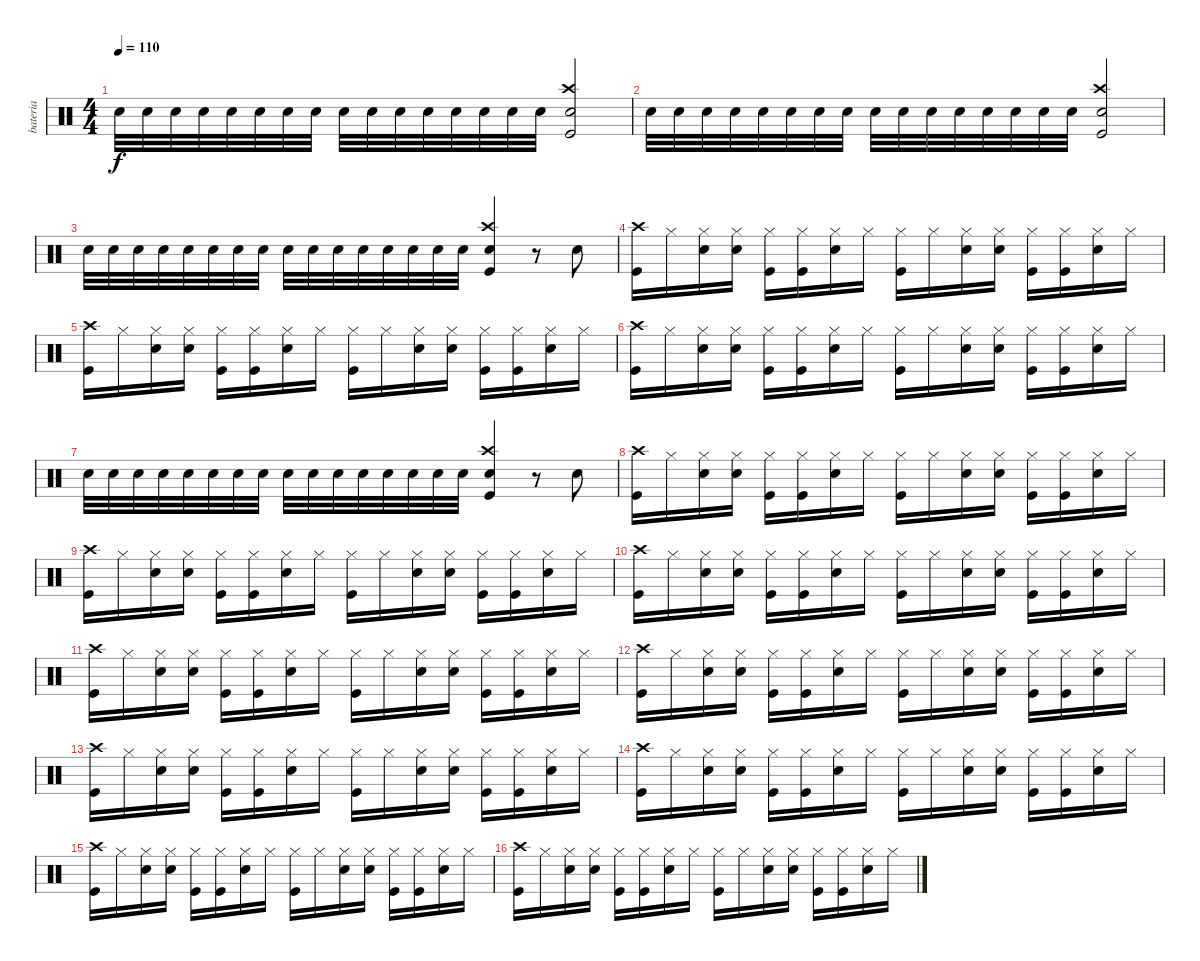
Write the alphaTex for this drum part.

\track ("bateria" "bateria") {instrument percussion}
\staff {score}
\articulation defaults
\ts (4 4)
\tempo 110
\clef neutral
\ks c "Snare (hit) 2".32{dy f} "Snare (hit) 2".32 "Snare (hit) 2".32 "Snare (hit) 2".32 "Snare (hit) 2".32 "Snare (hit) 2".32 "Snare (hit) 2".32 "Snare (hit) 2".32 "Snare (hit) 2".32 "Snare (hit) 2".32 "Snare (hit) 2".32 "Snare (hit) 2".32 "Snare (hit) 2".32 "Snare (hit) 2".32 "Snare (hit) 2".32 "Snare (hit) 2".32
("Crash high (hit)" "Snare (hit) 2" "Kick (hit)").2 |
"Snare (hit) 2".32 "Snare (hit) 2".32 "Snare (hit) 2".32 "Snare (hit) 2".32 "Snare (hit) 2".32 "Snare (hit) 2".32 "Snare (hit) 2".32 "Snare (hit) 2".32 "Snare (hit) 2".32 "Snare (hit) 2".32 "Snare (hit) 2".32 "Snare (hit) 2".32 "Snare (hit) 2".32 "Snare (hit) 2".32 "Snare (hit) 2".32 "Snare (hit) 2".32 ("Crash high (hit)" "Snare (hit) 2" "Kick (hit)").2 |
"Snare (hit) 2".32 "Snare (hit) 2".32 "Snare (hit) 2".32 "Snare (hit) 2".32 "Snare (hit) 2".32 "Snare (hit) 2".32 "Snare (hit) 2".32 "Snare (hit) 2".32 "Snare (hit) 2".32 "Snare (hit) 2".32 "Snare (hit) 2".32 "Snare (hit) 2".32 "Snare (hit) 2".32 "Snare (hit) 2".32 "Snare (hit) 2".32 "Snare (hit) 2".32 ("Crash high (hit)" "Snare (hit) 2" "Kick (hit)").4 r.8 "Snare (hit) 2".8 |
("Crash high (hit)" "Kick (hit)").16 "Hi-Hat (closed)".16 ("Hi-Hat (closed)" "Snare (hit) 2").16 ("Hi-Hat (closed)" "Snare (hit) 2").16 ("Hi-Hat (closed)" "Kick (hit)").16 ("Hi-Hat (closed)" "Kick (hit)").16 ("Hi-Hat (closed)" "Snare (hit) 2").16 "Hi-Hat (closed)".16 ("Hi-Hat (closed)" "Kick (hit)").16 "Hi-Hat (closed)".16 ("Hi-Hat (closed)" "Snare (hit) 2").16 ("Hi-Hat (closed)" "Snare (hit) 2").16 ("Hi-Hat (closed)" "Kick (hit)").16 ("Hi-Hat (closed)" "Kick (hit)").16 ("Hi-Hat (closed)" "Snare (hit) 2").16 "Hi-Hat (closed)".16 |
("Crash high (hit)" "Kick (hit)").16 "Hi-Hat (closed)".16 ("Hi-Hat (closed)" "Snare (hit) 2").16 ("Hi-Hat (closed)" "Snare (hit) 2").16 ("Hi-Hat (closed)" "Kick (hit)").16 ("Hi-Hat (closed)" "Kick (hit)").16 ("Hi-Hat (closed)" "Snare (hit) 2").16 "Hi-Hat (closed)".16 ("Hi-Hat (closed)" "Kick (hit)").16 "Hi-Hat (closed)".16 ("Hi-Hat (closed)" "Snare (hit) 2").16 ("Hi-Hat (closed)" "Snare (hit) 2").16 ("Hi-Hat (closed)" "Kick (hit)").16 ("Hi-Hat (closed)" "Kick (hit)").16 ("Hi-Hat (closed)" "Snare (hit) 2").16 "Hi-Hat (closed)".16 |
("Crash high (hit)" "Kick (hit)").16 "Hi-Hat (closed)".16 ("Hi-Hat (closed)" "Snare (hit) 2").16 ("Hi-Hat (closed)" "Snare (hit) 2").16 ("Hi-Hat (closed)" "Kick (hit)").16 ("Hi-Hat (closed)" "Kick (hit)").16 ("Hi-Hat (closed)" "Snare (hit) 2").16 "Hi-Hat (closed)".16 ("Hi-Hat (closed)" "Kick (hit)").16 "Hi-Hat (closed)".16 ("Hi-Hat (closed)" "Snare (hit) 2").16 ("Hi-Hat (closed)" "Snare (hit) 2").16 ("Hi-Hat (closed)" "Kick (hit)").16 ("Hi-Hat (closed)" "Kick (hit)").16 ("Hi-Hat (closed)" "Snare (hit) 2").16 "Hi-Hat (closed)".16 |
"Snare (hit) 2".32 "Snare (hit) 2".32 "Snare (hit) 2".32 "Snare (hit) 2".32 "Snare (hit) 2".32 "Snare (hit) 2".32 "Snare (hit) 2".32 "Snare (hit) 2".32 "Snare (hit) 2".32 "Snare (hit) 2".32 "Snare (hit) 2".32 "Snare (hit) 2".32 "Snare (hit) 2".32 "Snare (hit) 2".32 "Snare (hit) 2".32 "Snare (hit) 2".32 ("Crash high (hit)" "Snare (hit) 2" "Kick (hit)").4 r.8 "Snare (hit) 2".8 |
("Crash high (hit)" "Kick (hit)").16 "Hi-Hat (closed)".16 ("Hi-Hat (closed)" "Snare (hit) 2").16 ("Hi-Hat (closed)" "Snare (hit) 2").16 ("Hi-Hat (closed)" "Kick (hit)").16 ("Hi-Hat (closed)" "Kick (hit)").16 ("Hi-Hat (closed)" "Snare (hit) 2").16 "Hi-Hat (closed)".16 ("Hi-Hat (closed)" "Kick (hit)").16 "Hi-Hat (closed)".16 ("Hi-Hat (closed)" "Snare (hit) 2").16 ("Hi-Hat (closed)" "Snare (hit) 2").16 ("Hi-Hat (closed)" "Kick (hit)").16 ("Hi-Hat (closed)" "Kick (hit)").16 ("Hi-Hat (closed)" "Snare (hit) 2").16 "Hi-Hat (closed)".16 |
("Crash high (hit)" "Kick (hit)").16 "Hi-Hat (closed)".16 ("Hi-Hat (closed)" "Snare (hit) 2").16 ("Hi-Hat (closed)" "Snare (hit) 2").16 ("Hi-Hat (closed)" "Kick (hit)").16 ("Hi-Hat (closed)" "Kick (hit)").16 ("Hi-Hat (closed)" "Snare (hit) 2").16 "Hi-Hat (closed)".16 ("Hi-Hat (closed)" "Kick (hit)").16 "Hi-Hat (closed)".16 ("Hi-Hat (closed)" "Snare (hit) 2").16 ("Hi-Hat (closed)" "Snare (hit) 2").16 ("Hi-Hat (closed)" "Kick (hit)").16 ("Hi-Hat (closed)" "Kick (hit)").16 ("Hi-Hat (closed)" "Snare (hit) 2").16 "Hi-Hat (closed)".16 |
("Crash high (hit)" "Kick (hit)").16 "Hi-Hat (closed)".16 ("Hi-Hat (closed)" "Snare (hit) 2").16 ("Hi-Hat (closed)" "Snare (hit) 2").16 ("Hi-Hat (closed)" "Kick (hit)").16 ("Hi-Hat (closed)" "Kick (hit)").16 ("Hi-Hat (closed)" "Snare (hit) 2").16 "Hi-Hat (closed)".16 ("Hi-Hat (closed)" "Kick (hit)").16 "Hi-Hat (closed)".16 ("Hi-Hat (closed)" "Snare (hit) 2").16 ("Hi-Hat (closed)" "Snare (hit) 2").16 ("Hi-Hat (closed)" "Kick (hit)").16 ("Hi-Hat (closed)" "Kick (hit)").16 ("Hi-Hat (closed)" "Snare (hit) 2").16 "Hi-Hat (closed)".16 |
("Crash high (hit)" "Kick (hit)").16 "Hi-Hat (closed)".16 ("Hi-Hat (closed)" "Snare (hit) 2").16 ("Hi-Hat (closed)" "Snare (hit) 2").16 ("Hi-Hat (closed)" "Kick (hit)").16 ("Hi-Hat (closed)" "Kick (hit)").16 ("Hi-Hat (closed)" "Snare (hit) 2").16 "Hi-Hat (closed)".16 ("Hi-Hat (closed)" "Kick (hit)").16 "Hi-Hat (closed)".16 ("Hi-Hat (closed)" "Snare (hit) 2").16 ("Hi-Hat (closed)" "Snare (hit) 2").16 ("Hi-Hat (closed)" "Kick (hit)").16 ("Hi-Hat (closed)" "Kick (hit)").16 ("Hi-Hat (closed)" "Snare (hit) 2").16 "Hi-Hat (closed)".16 |
("Crash high (hit)" "Kick (hit)").16 "Hi-Hat (closed)".16 ("Hi-Hat (closed)" "Snare (hit) 2").16 ("Hi-Hat (closed)" "Snare (hit) 2").16 ("Hi-Hat (closed)" "Kick (hit)").16 ("Hi-Hat (closed)" "Kick (hit)").16 ("Hi-Hat (closed)" "Snare (hit) 2").16 "Hi-Hat (closed)".16 ("Hi-Hat (closed)" "Kick (hit)").16 "Hi-Hat (closed)".16 ("Hi-Hat (closed)" "Snare (hit) 2").16 ("Hi-Hat (closed)" "Snare (hit) 2").16 ("Hi-Hat (closed)" "Kick (hit)").16 ("Hi-Hat (closed)" "Kick (hit)").16 ("Hi-Hat (closed)" "Snare (hit) 2").16 "Hi-Hat (closed)".16 |
("Crash high (hit)" "Kick (hit)").16 "Hi-Hat (closed)".16 ("Hi-Hat (closed)" "Snare (hit) 2").16 ("Hi-Hat (closed)" "Snare (hit) 2").16 ("Hi-Hat (closed)" "Kick (hit)").16 ("Hi-Hat (closed)" "Kick (hit)").16 ("Hi-Hat (closed)" "Snare (hit) 2").16 "Hi-Hat (closed)".16 ("Hi-Hat (closed)" "Kick (hit)").16 "Hi-Hat (closed)".16 ("Hi-Hat (closed)" "Snare (hit) 2").16 ("Hi-Hat (closed)" "Snare (hit) 2").16 ("Hi-Hat (closed)" "Kick (hit)").16 ("Hi-Hat (closed)" "Kick (hit)").16 ("Hi-Hat (closed)" "Snare (hit) 2").16 "Hi-Hat (closed)".16 |
("Crash high (hit)" "Kick (hit)").16 "Hi-Hat (closed)".16 ("Hi-Hat (closed)" "Snare (hit) 2").16 ("Hi-Hat (closed)" "Snare (hit) 2").16 ("Hi-Hat (closed)" "Kick (hit)").16 ("Hi-Hat (closed)" "Kick (hit)").16 ("Hi-Hat (closed)" "Snare (hit) 2").16 "Hi-Hat (closed)".16 ("Hi-Hat (closed)" "Kick (hit)").16 "Hi-Hat (closed)".16 ("Hi-Hat (closed)" "Snare (hit) 2").16 ("Hi-Hat (closed)" "Snare (hit) 2").16 ("Hi-Hat (closed)" "Kick (hit)").16 ("Hi-Hat (closed)" "Kick (hit)").16 ("Hi-Hat (closed)" "Snare (hit) 2").16 "Hi-Hat (closed)".16 |
("Crash high (hit)" "Kick (hit)").16 "Hi-Hat (closed)".16 ("Hi-Hat (closed)" "Snare (hit) 2").16 ("Hi-Hat (closed)" "Snare (hit) 2").16 ("Hi-Hat (closed)" "Kick (hit)").16 ("Hi-Hat (closed)" "Kick (hit)").16 ("Hi-Hat (closed)" "Snare (hit) 2").16 "Hi-Hat (closed)".16 ("Hi-Hat (closed)" "Kick (hit)").16 "Hi-Hat (closed)".16 ("Hi-Hat (closed)" "Snare (hit) 2").16 ("Hi-Hat (closed)" "Snare (hit) 2").16 ("Hi-Hat (closed)" "Kick (hit)").16 ("Hi-Hat (closed)" "Kick (hit)").16 ("Hi-Hat (closed)" "Snare (hit) 2").16 "Hi-Hat (closed)".16 |
("Crash high (hit)" "Kick (hit)").16 "Hi-Hat (closed)".16 ("Hi-Hat (closed)" "Snare (hit) 2").16 ("Hi-Hat (closed)" "Snare (hit) 2").16 ("Hi-Hat (closed)" "Kick (hit)").16 ("Hi-Hat (closed)" "Kick (hit)").16 ("Hi-Hat (closed)" "Snare (hit) 2").16 "Hi-Hat (closed)".16 ("Hi-Hat (closed)" "Kick (hit)").16 "Hi-Hat (closed)".16 ("Hi-Hat (closed)" "Snare (hit) 2").16 ("Hi-Hat (closed)" "Snare (hit) 2").16 ("Hi-Hat (closed)" "Kick (hit)").16 ("Hi-Hat (closed)" "Kick (hit)").16 ("Hi-Hat (closed)" "Snare (hit) 2").16 "Hi-Hat (closed)".16
